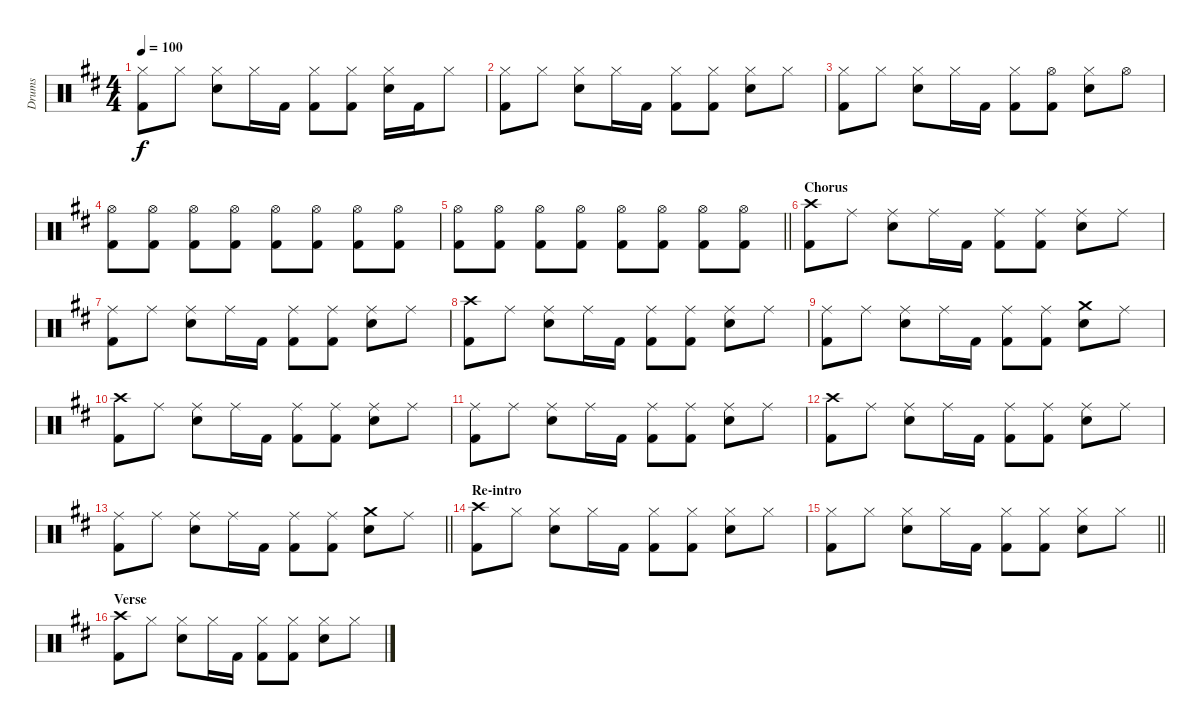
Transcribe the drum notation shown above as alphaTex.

\track ("Drums" "Drums") {instrument percussion}
\staff {score}
\articulation defaults
\ts (4 4)
\tempo 100
\clef neutral
\ks d
("Hi-Hat (closed)" "Kick (hit) 2").8{dy f} "Hi-Hat (closed)".8 ("Hi-Hat (closed)" "Snare (hit) 2").8 "Hi-Hat (closed)".16 "Kick (hit) 2".16 ("Hi-Hat (closed)" "Kick (hit) 2").8 ("Hi-Hat (closed)" "Kick (hit) 2").8 ("Hi-Hat (closed)" "Snare (hit) 2").16 "Kick (hit) 2".16 "Hi-Hat (closed)".8 |
("Hi-Hat (closed)" "Kick (hit) 2").8 "Hi-Hat (closed)".8 ("Hi-Hat (closed)" "Snare (hit) 2").8 "Hi-Hat (closed)".16 "Kick (hit) 2".16 ("Hi-Hat (closed)" "Kick (hit) 2").8 ("Hi-Hat (closed)" "Kick (hit) 2").8 ("Hi-Hat (closed)" "Snare (hit) 2").8 "Hi-Hat (closed)".8 |
("Hi-Hat (closed)" "Kick (hit) 2").8 "Hi-Hat (closed)".8 ("Hi-Hat (closed)" "Snare (hit) 2").8 "Hi-Hat (closed)".16 "Kick (hit) 2".16 ("Hi-Hat (closed)" "Kick (hit) 2").8 ("Hi-Hat (open)" "Kick (hit) 2").8 ("Hi-Hat (closed)" "Snare (hit) 2").8 "Hi-Hat (open)".8 |
("Hi-Hat (open)" "Kick (hit) 2").8 ("Hi-Hat (open)" "Kick (hit) 2").8 ("Hi-Hat (open)" "Kick (hit) 2").8 ("Hi-Hat (open)" "Kick (hit) 2").8 ("Hi-Hat (open)" "Kick (hit) 2").8 ("Hi-Hat (open)" "Kick (hit) 2").8 ("Hi-Hat (open)" "Kick (hit) 2").8 ("Hi-Hat (open)" "Kick (hit) 2").8 |
\barLineRight lightlight
("Hi-Hat (open)" "Kick (hit) 2").8 ("Hi-Hat (open)" "Kick (hit) 2").8 ("Hi-Hat (open)" "Kick (hit) 2").8 ("Hi-Hat (open)" "Kick (hit) 2").8 ("Hi-Hat (open)" "Kick (hit) 2").8 ("Hi-Hat (open)" "Kick (hit) 2").8 ("Hi-Hat (open)" "Kick (hit) 2").8 ("Hi-Hat (open)" "Kick (hit) 2").8 |
\section ("" "Chorus")
("Crash high (hit)" "Kick (hit) 2").8 "Ride (middle)".8 ("Ride (middle)" "Snare (hit) 2").8 "Ride (middle)".16 "Kick (hit) 2".16 ("Ride (middle)" "Kick (hit) 2").8 ("Ride (middle)" "Kick (hit) 2").8 ("Ride (middle)" "Snare (hit) 2").8 "Ride (middle)".8 |
("Ride (middle)" "Kick (hit) 2").8 "Ride (middle)".8 ("Ride (middle)" "Snare (hit) 2").8 "Ride (middle)".16 "Kick (hit) 2".16 ("Ride (middle)" "Kick (hit) 2").8 ("Ride (middle)" "Kick (hit) 2").8 ("Ride (middle)" "Snare (hit) 2").8 "Ride (middle)".8 |
("Crash high (hit)" "Kick (hit) 2").8 "Ride (middle)".8 ("Ride (middle)" "Snare (hit) 2").8 "Ride (middle)".16 "Kick (hit) 2".16 ("Ride (middle)" "Kick (hit) 2").8 ("Ride (middle)" "Kick (hit) 2").8 ("Ride (middle)" "Snare (hit) 2").8 "Ride (middle)".8 |
("Ride (middle)" "Kick (hit) 2").8 "Ride (middle)".8 ("Ride (middle)" "Snare (hit) 2").8 "Ride (middle)".16 "Kick (hit) 2".16 ("Ride (middle)" "Kick (hit) 2").8 ("Ride (middle)" "Kick (hit) 2").8 ("Crash medium (hit)" "Snare (hit) 2").8 "Ride (middle)".8 |
("Crash high (hit)" "Kick (hit) 2").8 "Ride (middle)".8 ("Ride (middle)" "Snare (hit) 2").8 "Ride (middle)".16 "Kick (hit) 2".16 ("Ride (middle)" "Kick (hit) 2").8 ("Ride (middle)" "Kick (hit) 2").8 ("Ride (middle)" "Snare (hit) 2").8 "Ride (middle)".8 |
("Ride (middle)" "Kick (hit) 2").8 "Ride (middle)".8 ("Ride (middle)" "Snare (hit) 2").8 "Ride (middle)".16 "Kick (hit) 2".16 ("Ride (middle)" "Kick (hit) 2").8 ("Ride (middle)" "Kick (hit) 2").8 ("Ride (middle)" "Snare (hit) 2").8 "Ride (middle)".8 |
("Crash high (hit)" "Kick (hit) 2").8 "Ride (middle)".8 ("Ride (middle)" "Snare (hit) 2").8 "Ride (middle)".16 "Kick (hit) 2".16 ("Ride (middle)" "Kick (hit) 2").8 ("Ride (middle)" "Kick (hit) 2").8 ("Ride (middle)" "Snare (hit) 2").8 "Ride (middle)".8 |
\barLineRight lightlight
("Ride (middle)" "Kick (hit) 2").8 "Ride (middle)".8 ("Ride (middle)" "Snare (hit) 2").8 "Ride (middle)".16 "Kick (hit) 2".16 ("Ride (middle)" "Kick (hit) 2").8 ("Ride (middle)" "Kick (hit) 2").8 ("Crash medium (hit)" "Snare (hit) 2").8 "Ride (middle)".8 |
\section ("" "Re-intro")
("Crash high (hit)" "Kick (hit) 2").8 "Hi-Hat (closed)".8 ("Hi-Hat (closed)" "Snare (hit) 2").8 "Hi-Hat (closed)".16 "Kick (hit) 2".16 ("Hi-Hat (closed)" "Kick (hit) 2").8 ("Hi-Hat (closed)" "Kick (hit) 2").8 ("Hi-Hat (closed)" "Snare (hit) 2").8 "Hi-Hat (closed)".8 |
\barLineRight lightlight
("Hi-Hat (closed)" "Kick (hit) 2").8 "Hi-Hat (closed)".8 ("Hi-Hat (closed)" "Snare (hit) 2").8 "Hi-Hat (closed)".16 "Kick (hit) 2".16 ("Hi-Hat (closed)" "Kick (hit) 2").8 ("Hi-Hat (closed)" "Kick (hit) 2").8 ("Hi-Hat (closed)" "Snare (hit) 2").8 "Hi-Hat (closed)".8 |
\section ("" "Verse")
("Crash high (hit)" "Kick (hit) 2").8 "Hi-Hat (closed)".8 ("Hi-Hat (closed)" "Snare (hit) 2").8 "Hi-Hat (closed)".16 "Kick (hit) 2".16 ("Hi-Hat (closed)" "Kick (hit) 2").8 ("Hi-Hat (closed)" "Kick (hit) 2").8 ("Hi-Hat (closed)" "Snare (hit) 2").8 "Hi-Hat (closed)".8
